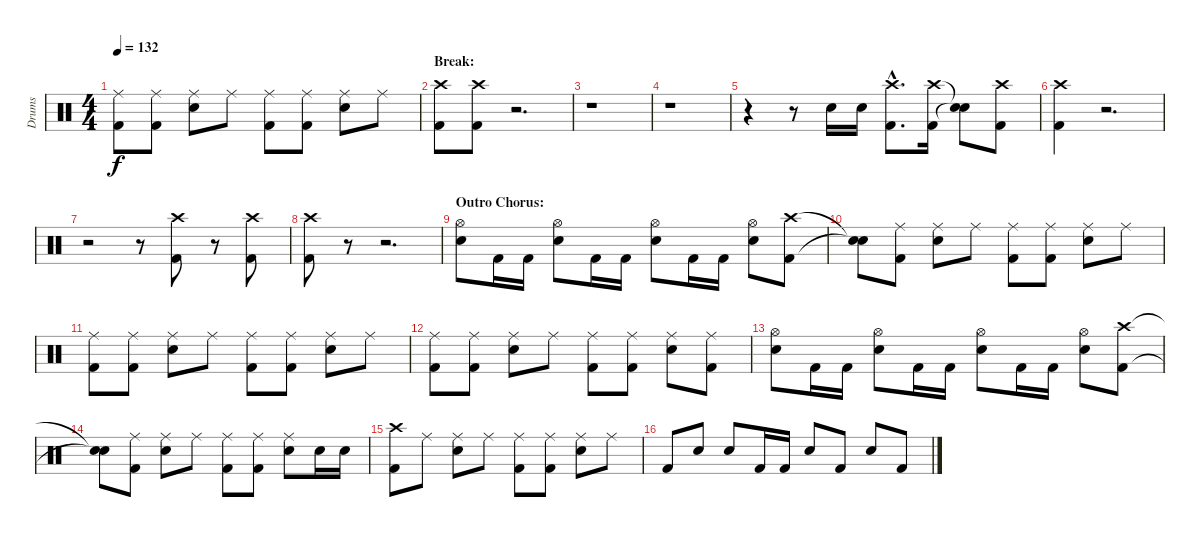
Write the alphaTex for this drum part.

\track ("Drums" "Drums") {instrument percussion}
\staff {score}
\articulation defaults
\ts (4 4)
\tempo 132
\clef neutral
\ks c
("Ride (middle)" "Kick (hit) 2").8{dy f} ("Ride (middle)" "Kick (hit) 2").8 ("Ride (middle)" "Electric Snare (hit)").8 "Ride (middle)".8 ("Ride (middle)" "Kick (hit) 2").8 ("Ride (middle)" "Kick (hit) 2").8 ("Ride (middle)" "Electric Snare (hit)").8 "Ride (middle)".8 |
\section ("" "Break:")
("Crash high (hit)" "Kick (hit) 2").8 ("Crash high (hit)" "Kick (hit) 2").8 r.2{d} |
r.1 |
r.1 |
r.4 r.8 "Electric Snare (hit)".16 "Electric Snare (hit)".16 ("Crash high (hit)"{hac} "Kick (hit) 2"{hac}).8{d} ("Crash high (hit)" "Kick (hit) 2").16 ("Snare (hit)"{t} "Snare (hit)"{t}).8 ("Crash high (hit)" "Kick (hit) 2").8 |
("Crash high (hit)" "Kick (hit) 2").4 r.2{d} |
r.2 r.8 ("Crash high (hit)" "Kick (hit) 2").8 r.8 ("Crash high (hit)" "Kick (hit) 2").8 |
("Crash high (hit)" "Kick (hit) 2").8 r.8 r.2{d} |
\section ("" "Outro Chorus:")
("Hi-Hat (open)" "Electric Snare (hit)").8 "Kick (hit) 2".16 "Kick (hit) 2".16 ("Hi-Hat (open)" "Electric Snare (hit)").8 "Kick (hit) 2".16 "Kick (hit) 2".16 ("Hi-Hat (open)" "Electric Snare (hit)").8 "Kick (hit) 2".16 "Kick (hit) 2".16 ("Hi-Hat (open)" "Electric Snare (hit)").8 ("Crash high (hit)" "Kick (hit) 2").8 |
("Snare (hit)"{t} "Snare (hit)"{t}).8 ("Ride (middle)" "Kick (hit) 2").8 ("Ride (middle)" "Electric Snare (hit)").8 "Ride (middle)".8 ("Ride (middle)" "Kick (hit) 2").8 ("Ride (middle)" "Kick (hit) 2").8 ("Ride (middle)" "Electric Snare (hit)").8 "Ride (middle)".8 |
("Ride (middle)" "Kick (hit) 2").8 ("Ride (middle)" "Kick (hit) 2").8 ("Ride (middle)" "Electric Snare (hit)").8 "Ride (middle)".8 ("Ride (middle)" "Kick (hit) 2").8 ("Ride (middle)" "Kick (hit) 2").8 ("Ride (middle)" "Electric Snare (hit)").8 "Ride (middle)".8 |
("Ride (middle)" "Kick (hit) 2").8 ("Ride (middle)" "Kick (hit) 2").8 ("Ride (middle)" "Electric Snare (hit)").8 "Ride (middle)".8 ("Ride (middle)" "Kick (hit) 2").8 ("Ride (middle)" "Kick (hit) 2").8 ("Ride (middle)" "Electric Snare (hit)").8 ("Ride (middle)" "Kick (hit) 2").8 |
("Hi-Hat (open)" "Electric Snare (hit)").8 "Kick (hit) 2".16 "Kick (hit) 2".16 ("Hi-Hat (open)" "Electric Snare (hit)").8 "Kick (hit) 2".16 "Kick (hit) 2".16 ("Hi-Hat (open)" "Electric Snare (hit)").8 "Kick (hit) 2".16 "Kick (hit) 2".16 ("Hi-Hat (open)" "Electric Snare (hit)").8 ("Crash high (hit)" "Kick (hit) 2").8 |
("Snare (hit)"{t} "Snare (hit)"{t}).8 ("Ride (middle)" "Kick (hit) 2").8 ("Ride (middle)" "Electric Snare (hit)").8 "Ride (middle)".8 ("Ride (middle)" "Kick (hit) 2").8 ("Ride (middle)" "Kick (hit) 2").8 ("Ride (middle)" "Electric Snare (hit)").8 "Electric Snare (hit)".16 "Electric Snare (hit)".16 |
("Crash high (hit)" "Kick (hit) 2").8 "Ride (middle)".8 ("Ride (middle)" "Electric Snare (hit)").8 "Ride (middle)".8 ("Ride (middle)" "Kick (hit) 2").8 ("Ride (middle)" "Kick (hit) 2").8 ("Ride (middle)" "Electric Snare (hit)").8 "Ride (middle)".8 |
"Kick (hit) 2".8 "Electric Snare (hit)".8 "Electric Snare (hit)".8 "Kick (hit) 2".16 "Kick (hit) 2".16 "Electric Snare (hit)".8 "Kick (hit) 2".8 "Electric Snare (hit)".8 "Kick (hit) 2".8
